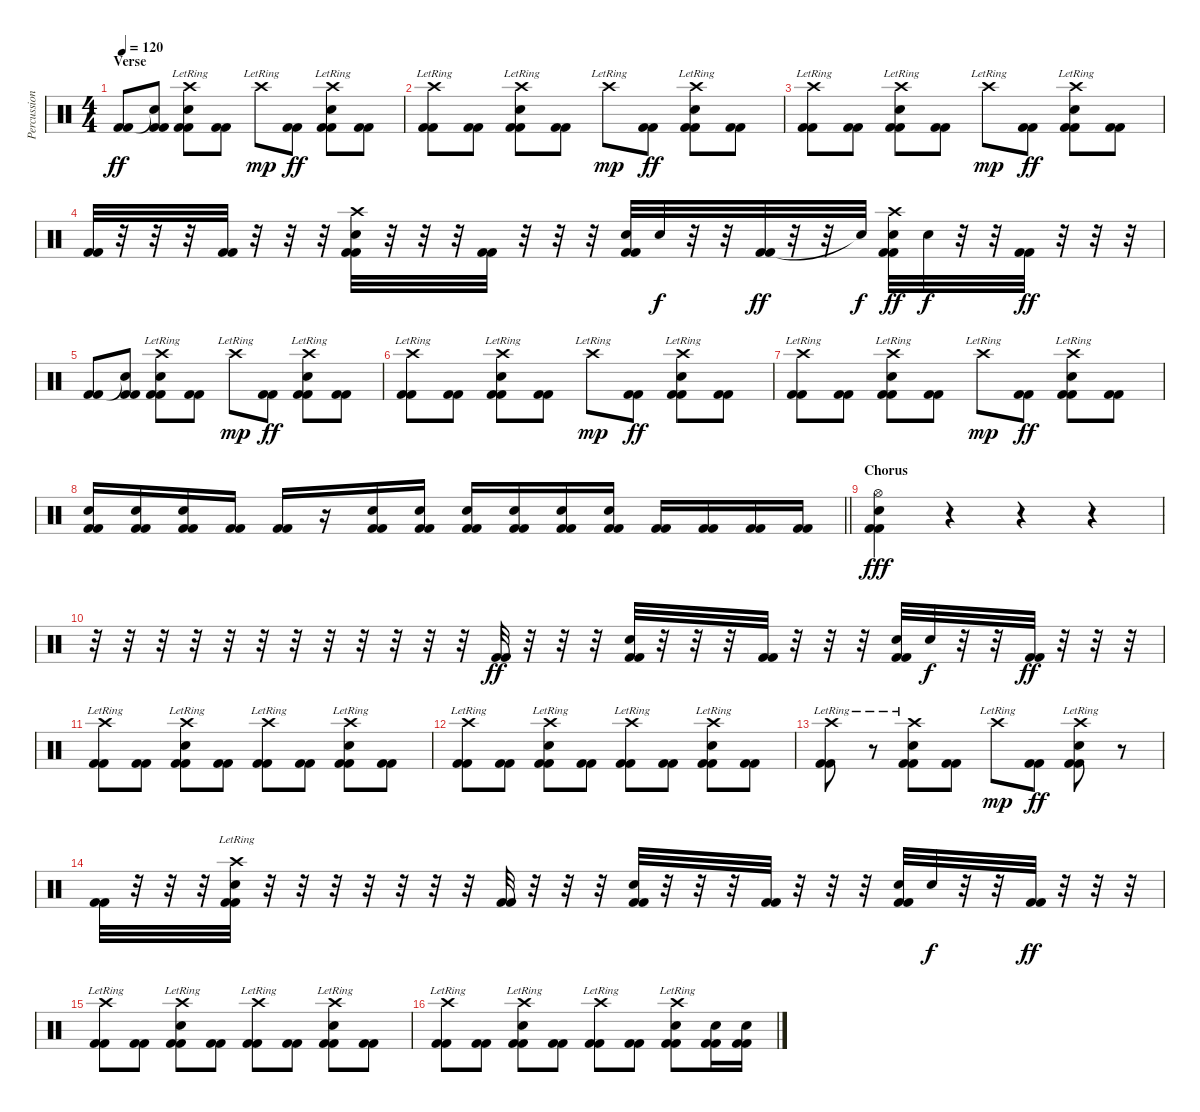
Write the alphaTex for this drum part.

\track ("Percussion" "Percussion") {instrument percussion}
\staff {score}
\articulation defaults
\ts (4 4)
\section ("" "Verse")
\tempo 120
\clef neutral
\ks c
("Kick (hit) 2" "Kick (hit) 2").8{dy ff} ("Snare (hit)"{t} "Kick (hit) 2" "Kick (hit) 2").8 ("Crash high (hit)"{lr} "Snare (hit) 2" "Kick (hit) 2" "Kick (hit) 2").8 ("Kick (hit) 2" "Kick (hit) 2").8 "Crash high (hit)"{lr}.8{dy mp} ("Kick (hit) 2" "Kick (hit) 2").8{dy ff} ("Crash high (hit)"{lr} "Snare (hit) 2" "Kick (hit) 2" "Kick (hit) 2").8 ("Kick (hit) 2" "Kick (hit) 2").8 |
("Crash high (hit)"{lr} "Kick (hit) 2" "Kick (hit) 2").8 ("Kick (hit) 2" "Kick (hit) 2").8 ("Crash high (hit)"{lr} "Snare (hit) 2" "Kick (hit) 2" "Kick (hit) 2").8 ("Kick (hit) 2" "Kick (hit) 2").8 "Crash high (hit)"{lr}.8{dy mp} ("Kick (hit) 2" "Kick (hit) 2").8{dy ff} ("Crash high (hit)"{lr} "Snare (hit) 2" "Kick (hit) 2" "Kick (hit) 2").8 ("Kick (hit) 2" "Kick (hit) 2").8 |
("Crash high (hit)"{lr} "Kick (hit) 2" "Kick (hit) 2").8 ("Kick (hit) 2" "Kick (hit) 2").8 ("Crash high (hit)"{lr} "Snare (hit) 2" "Kick (hit) 2" "Kick (hit) 2").8 ("Kick (hit) 2" "Kick (hit) 2").8 "Crash high (hit)"{lr}.8{dy mp} ("Kick (hit) 2" "Kick (hit) 2").8{dy ff} ("Crash high (hit)"{lr} "Snare (hit) 2" "Kick (hit) 2" "Kick (hit) 2").8 ("Kick (hit) 2" "Kick (hit) 2").8 |
("Kick (hit) 2" "Kick (hit) 2").32 r.32 r.32 r.32 ("Kick (hit) 2" "Kick (hit) 2").32 r.32 r.32 r.32 ("Crash high (hit)" "Snare (hit) 2" "Kick (hit) 2" "Kick (hit) 2").32 r.32 r.32 r.32 ("Kick (hit) 2" "Kick (hit) 2").32 r.32 r.32 r.32 ("Snare (hit) 2" "Kick (hit) 2" "Kick (hit) 2").32 "Snare (hit) 2".32{dy f} r.32 r.32 ("Kick (hit) 2" "Kick (hit) 2").32{dy ff} r.32 r.32 "Snare (hit)"{t}.32{dy f} ("Crash high (hit)" "Snare (hit) 2" "Kick (hit) 2" "Kick (hit) 2").32{dy ff} "Snare (hit) 2".32{dy f} r.32 r.32 ("Kick (hit) 2" "Kick (hit) 2").32{dy ff} r.32 r.32 r.32 |
("Kick (hit) 2" "Kick (hit) 2").8 ("Snare (hit)"{t} "Kick (hit) 2" "Kick (hit) 2").8 ("Crash high (hit)"{lr} "Snare (hit) 2" "Kick (hit) 2" "Kick (hit) 2").8 ("Kick (hit) 2" "Kick (hit) 2").8 "Crash high (hit)"{lr}.8{dy mp} ("Kick (hit) 2" "Kick (hit) 2").8{dy ff} ("Crash high (hit)"{lr} "Snare (hit) 2" "Kick (hit) 2" "Kick (hit) 2").8 ("Kick (hit) 2" "Kick (hit) 2").8 |
("Crash high (hit)"{lr} "Kick (hit) 2" "Kick (hit) 2").8 ("Kick (hit) 2" "Kick (hit) 2").8 ("Crash high (hit)"{lr} "Snare (hit) 2" "Kick (hit) 2" "Kick (hit) 2").8 ("Kick (hit) 2" "Kick (hit) 2").8 "Crash high (hit)"{lr}.8{dy mp} ("Kick (hit) 2" "Kick (hit) 2").8{dy ff} ("Crash high (hit)"{lr} "Snare (hit) 2" "Kick (hit) 2" "Kick (hit) 2").8 ("Kick (hit) 2" "Kick (hit) 2").8 |
("Crash high (hit)"{lr} "Kick (hit) 2" "Kick (hit) 2").8 ("Kick (hit) 2" "Kick (hit) 2").8 ("Crash high (hit)"{lr} "Snare (hit) 2" "Kick (hit) 2" "Kick (hit) 2").8 ("Kick (hit) 2" "Kick (hit) 2").8 "Crash high (hit)"{lr}.8{dy mp} ("Kick (hit) 2" "Kick (hit) 2").8{dy ff} ("Crash high (hit)"{lr} "Snare (hit) 2" "Kick (hit) 2" "Kick (hit) 2").8 ("Kick (hit) 2" "Kick (hit) 2").8 |
\barLineRight lightlight
("Snare (hit) 2" "Kick (hit) 2" "Kick (hit) 2").16 ("Snare (hit) 2" "Kick (hit) 2" "Kick (hit) 2").16 ("Snare (hit) 2" "Kick (hit) 2" "Kick (hit) 2").16 ("Kick (hit) 2" "Kick (hit) 2").16 ("Kick (hit) 2" "Kick (hit) 2").16 r.16 ("Snare (hit) 2" "Kick (hit) 2" "Kick (hit) 2").16 ("Snare (hit) 2" "Kick (hit) 2" "Kick (hit) 2").16 ("Snare (hit) 2" "Kick (hit) 2" "Kick (hit) 2").16 ("Snare (hit) 2" "Kick (hit) 2" "Kick (hit) 2").16 ("Snare (hit) 2" "Kick (hit) 2" "Kick (hit) 2").16 ("Snare (hit) 2" "Kick (hit) 2" "Kick (hit) 2").16 ("Kick (hit) 2" "Kick (hit) 2").16 ("Kick (hit) 2" "Kick (hit) 2").16 ("Kick (hit) 2" "Kick (hit) 2").16 ("Kick (hit) 2" "Kick (hit) 2").16 |
\section ("" "Chorus")
("Hi-Hat (open)" "Snare (hit) 2" "Kick (hit) 2" "Kick (hit) 2").4{dy fff} r.4 r.4 r.4 |
r.32 r.32 r.32 r.32 r.32 r.32 r.32 r.32 r.32 r.32 r.32 r.32 ("Kick (hit) 2" "Kick (hit) 2").32{dy ff} r.32 r.32 r.32 ("Snare (hit) 2" "Kick (hit) 2" "Kick (hit) 2").32 r.32 r.32 r.32 ("Kick (hit) 2" "Kick (hit) 2").32 r.32 r.32 r.32 ("Snare (hit) 2" "Kick (hit) 2" "Kick (hit) 2").32 "Snare (hit) 2".32{dy f} r.32 r.32 ("Kick (hit) 2" "Kick (hit) 2").32{dy ff} r.32 r.32 r.32 |
("Crash high (hit)"{lr} "Kick (hit) 2" "Kick (hit) 2").8 ("Kick (hit) 2" "Kick (hit) 2").8 ("Crash high (hit)"{lr} "Snare (hit) 2" "Kick (hit) 2" "Kick (hit) 2").8 ("Kick (hit) 2" "Kick (hit) 2").8 ("Crash high (hit)"{lr} "Kick (hit) 2" "Kick (hit) 2").8 ("Kick (hit) 2" "Kick (hit) 2").8 ("Crash high (hit)"{lr} "Snare (hit) 2" "Kick (hit) 2" "Kick (hit) 2").8 ("Kick (hit) 2" "Kick (hit) 2").8 |
("Crash high (hit)"{lr} "Kick (hit) 2" "Kick (hit) 2").8 ("Kick (hit) 2" "Kick (hit) 2").8 ("Crash high (hit)"{lr} "Snare (hit) 2" "Kick (hit) 2" "Kick (hit) 2").8 ("Kick (hit) 2" "Kick (hit) 2").8 ("Crash high (hit)"{lr} "Kick (hit) 2" "Kick (hit) 2").8 ("Kick (hit) 2" "Kick (hit) 2").8 ("Crash high (hit)"{lr} "Snare (hit) 2" "Kick (hit) 2" "Kick (hit) 2").8 ("Kick (hit) 2" "Kick (hit) 2").8 |
("Crash high (hit)"{lr} "Kick (hit) 2" "Kick (hit) 2").8 r.8 ("Crash high (hit)"{lr} "Snare (hit) 2" "Kick (hit) 2" "Kick (hit) 2").8 ("Kick (hit) 2" "Kick (hit) 2").8 "Crash high (hit)"{lr}.8{dy mp} ("Kick (hit) 2" "Kick (hit) 2").8{dy ff} ("Crash high (hit)"{lr} "Snare (hit) 2" "Kick (hit) 2" "Kick (hit) 2").8 r.8 |
("Kick (hit) 2" "Kick (hit) 2").32 r.32 r.32 r.32 ("Crash high (hit)"{lr} "Snare (hit) 2" "Kick (hit) 2" "Kick (hit) 2").32 r.32 r.32 r.32 r.32 r.32 r.32 r.32 ("Kick (hit) 2" "Kick (hit) 2").32 r.32 r.32 r.32 ("Snare (hit) 2" "Kick (hit) 2" "Kick (hit) 2").32 r.32 r.32 r.32 ("Kick (hit) 2" "Kick (hit) 2").32 r.32 r.32 r.32 ("Snare (hit) 2" "Kick (hit) 2" "Kick (hit) 2").32 "Snare (hit) 2".32{dy f} r.32 r.32 ("Kick (hit) 2" "Kick (hit) 2").32{dy ff} r.32 r.32 r.32 |
("Crash high (hit)"{lr} "Kick (hit) 2" "Kick (hit) 2").8 ("Kick (hit) 2" "Kick (hit) 2").8 ("Crash high (hit)"{lr} "Snare (hit) 2" "Kick (hit) 2" "Kick (hit) 2").8 ("Kick (hit) 2" "Kick (hit) 2").8 ("Crash high (hit)"{lr} "Kick (hit) 2" "Kick (hit) 2").8 ("Kick (hit) 2" "Kick (hit) 2").8 ("Crash high (hit)"{lr} "Snare (hit) 2" "Kick (hit) 2" "Kick (hit) 2").8 ("Kick (hit) 2" "Kick (hit) 2").8 |
("Crash high (hit)"{lr} "Kick (hit) 2" "Kick (hit) 2").8 ("Kick (hit) 2" "Kick (hit) 2").8 ("Crash high (hit)"{lr} "Snare (hit) 2" "Kick (hit) 2" "Kick (hit) 2").8 ("Kick (hit) 2" "Kick (hit) 2").8 ("Crash high (hit)"{lr} "Kick (hit) 2" "Kick (hit) 2").8 ("Kick (hit) 2" "Kick (hit) 2").8 ("Crash high (hit)"{lr} "Snare (hit) 2" "Kick (hit) 2" "Kick (hit) 2").8 ("Snare (hit) 2" "Kick (hit) 2" "Kick (hit) 2").16 ("Snare (hit) 2" "Kick (hit) 2" "Kick (hit) 2").16
